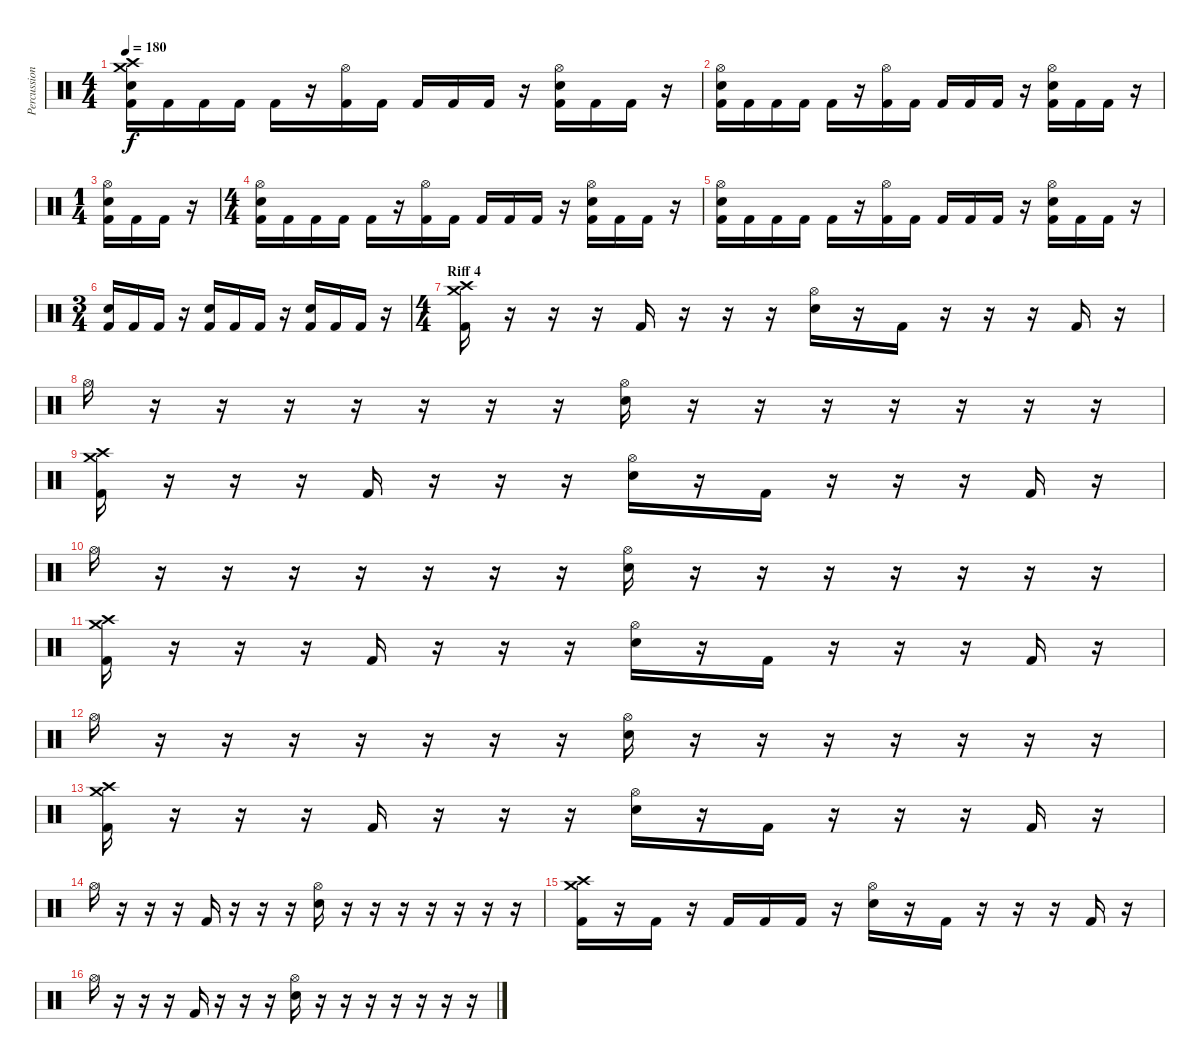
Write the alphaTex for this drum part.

\track ("Percussion" "Percussion") {instrument percussion}
\staff {score}
\articulation defaults
\ts (4 4)
\tempo 180
\clef neutral
\ks c
("Crash medium (hit)" "Crash high (hit)" "Electric Snare (hit)" "Kick (hit) 2").16{dy f} "Kick (hit) 2".16 "Kick (hit) 2".16 "Kick (hit) 2".16 "Kick (hit) 2".16 r.16 ("Hi-Hat (open)" "Kick (hit) 2").16 "Kick (hit) 2".16 "Kick (hit) 2".16 "Kick (hit) 2".16 "Kick (hit) 2".16 r.16 ("Hi-Hat (open)" "Electric Snare (hit)" "Kick (hit) 2").16 "Kick (hit) 2".16 "Kick (hit) 2".16 r.16 |
("Hi-Hat (open)" "Electric Snare (hit)" "Kick (hit) 2").16 "Kick (hit) 2".16 "Kick (hit) 2".16 "Kick (hit) 2".16 "Kick (hit) 2".16 r.16 ("Hi-Hat (open)" "Kick (hit) 2").16 "Kick (hit) 2".16 "Kick (hit) 2".16 "Kick (hit) 2".16 "Kick (hit) 2".16 r.16 ("Hi-Hat (open)" "Electric Snare (hit)" "Kick (hit) 2").16 "Kick (hit) 2".16 "Kick (hit) 2".16 r.16 |
\ts (1 4)
("Hi-Hat (open)" "Electric Snare (hit)" "Kick (hit) 2").16 "Kick (hit) 2".16 "Kick (hit) 2".16 r.16 |
\ts (4 4)
("Hi-Hat (open)" "Electric Snare (hit)" "Kick (hit) 2").16 "Kick (hit) 2".16 "Kick (hit) 2".16 "Kick (hit) 2".16 "Kick (hit) 2".16 r.16 ("Hi-Hat (open)" "Kick (hit) 2").16 "Kick (hit) 2".16 "Kick (hit) 2".16 "Kick (hit) 2".16 "Kick (hit) 2".16 r.16 ("Hi-Hat (open)" "Electric Snare (hit)" "Kick (hit) 2").16 "Kick (hit) 2".16 "Kick (hit) 2".16 r.16 |
("Hi-Hat (open)" "Electric Snare (hit)" "Kick (hit) 2").16 "Kick (hit) 2".16 "Kick (hit) 2".16 "Kick (hit) 2".16 "Kick (hit) 2".16 r.16 ("Hi-Hat (open)" "Kick (hit) 2").16 "Kick (hit) 2".16 "Kick (hit) 2".16 "Kick (hit) 2".16 "Kick (hit) 2".16 r.16 ("Hi-Hat (open)" "Electric Snare (hit)" "Kick (hit) 2").16 "Kick (hit) 2".16 "Kick (hit) 2".16 r.16 |
\ts (3 4)
("Electric Snare (hit)" "Kick (hit) 2").16 "Kick (hit) 2".16 "Kick (hit) 2".16 r.16 ("Electric Snare (hit)" "Kick (hit) 2").16 "Kick (hit) 2".16 "Kick (hit) 2".16 r.16 ("Electric Snare (hit)" "Kick (hit) 2").16 "Kick (hit) 2".16 "Kick (hit) 2".16 r.16 |
\ts (4 4)
\section ("" "Riff 4")
("Crash medium (hit)" "Crash high (hit)" "Kick (hit) 2").16 r.16 r.16 r.16 "Kick (hit) 2".16 r.16 r.16 r.16 ("Hi-Hat (open)" "Electric Snare (hit)").16 r.16 "Kick (hit) 2".16 r.16 r.16 r.16 "Kick (hit) 2".16 r.16 |
"Hi-Hat (open)".16 r.16 r.16 r.16 r.16 r.16 r.16 r.16 ("Hi-Hat (open)" "Electric Snare (hit)").16 r.16 r.16 r.16 r.16 r.16 r.16 r.16 |
("Crash medium (hit)" "Crash high (hit)" "Kick (hit) 2").16 r.16 r.16 r.16 "Kick (hit) 2".16 r.16 r.16 r.16 ("Hi-Hat (open)" "Electric Snare (hit)").16 r.16 "Kick (hit) 2".16 r.16 r.16 r.16 "Kick (hit) 2".16 r.16 |
"Hi-Hat (open)".16 r.16 r.16 r.16 r.16 r.16 r.16 r.16 ("Hi-Hat (open)" "Electric Snare (hit)").16 r.16 r.16 r.16 r.16 r.16 r.16 r.16 |
("Crash medium (hit)" "Crash high (hit)" "Kick (hit) 2").16 r.16 r.16 r.16 "Kick (hit) 2".16 r.16 r.16 r.16 ("Hi-Hat (open)" "Electric Snare (hit)").16 r.16 "Kick (hit) 2".16 r.16 r.16 r.16 "Kick (hit) 2".16 r.16 |
"Hi-Hat (open)".16 r.16 r.16 r.16 r.16 r.16 r.16 r.16 ("Hi-Hat (open)" "Electric Snare (hit)").16 r.16 r.16 r.16 r.16 r.16 r.16 r.16 |
("Crash medium (hit)" "Crash high (hit)" "Kick (hit) 2").16 r.16 r.16 r.16 "Kick (hit) 2".16 r.16 r.16 r.16 ("Hi-Hat (open)" "Electric Snare (hit)").16 r.16 "Kick (hit) 2".16 r.16 r.16 r.16 "Kick (hit) 2".16 r.16 |
"Hi-Hat (open)".16 r.16 r.16 r.16 "Kick (hit) 2".16 r.16 r.16 r.16 ("Hi-Hat (open)" "Electric Snare (hit)").16 r.16 r.16 r.16 r.16 r.16 r.16 r.16 |
("Crash medium (hit)" "Crash high (hit)" "Kick (hit) 2").16 r.16 "Kick (hit) 2".16 r.16 "Kick (hit) 2".16 "Kick (hit) 2".16 "Kick (hit) 2".16 r.16 ("Hi-Hat (open)" "Electric Snare (hit)").16 r.16 "Kick (hit) 2".16 r.16 r.16 r.16 "Kick (hit) 2".16 r.16 |
"Hi-Hat (open)".16 r.16 r.16 r.16 "Kick (hit) 2".16 r.16 r.16 r.16 ("Hi-Hat (open)" "Electric Snare (hit)").16 r.16 r.16 r.16 r.16 r.16 r.16 r.16
